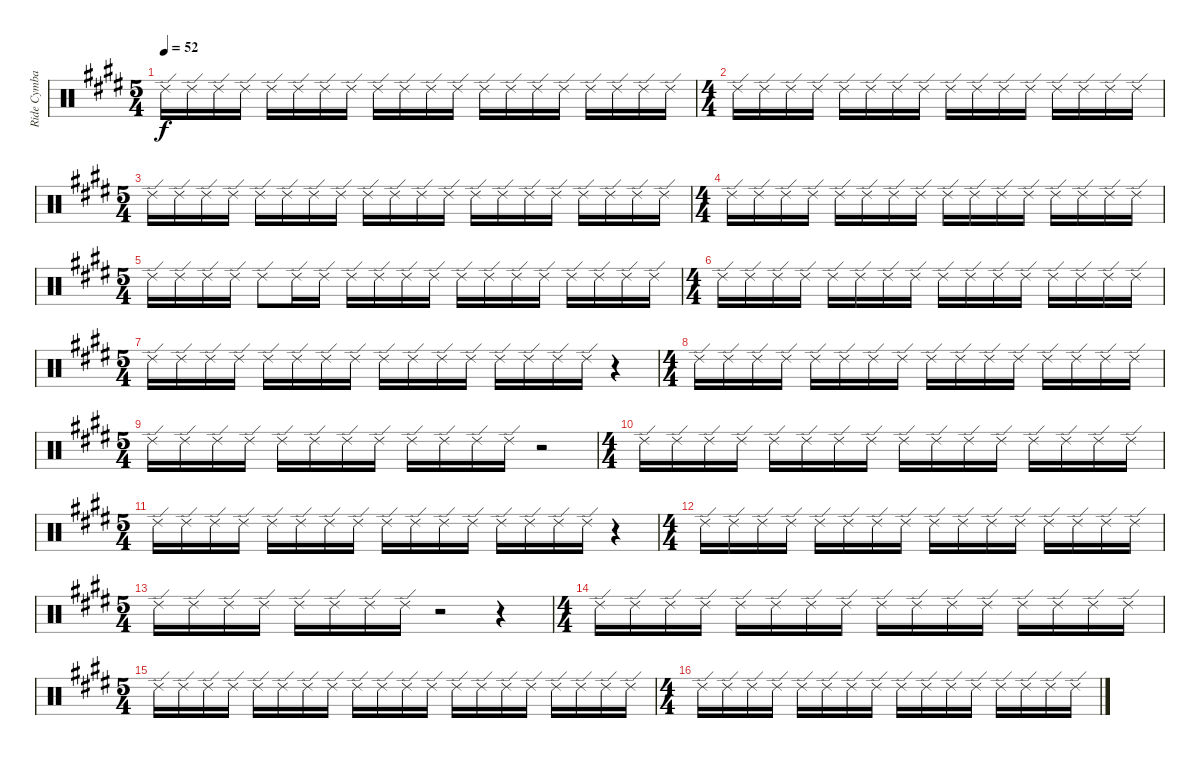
\track ("Ride Cymbal" "Ride Cymba") {instrument percussion}
\staff {score}
\articulation defaults
\ts (5 4)
\tempo 52
\clef neutral
\ks e "Ride (edge) 2".16{dy f} "Ride (edge) 2".16 "Ride (edge) 2".16 "Ride (edge) 2".16 "Ride (edge) 2".16 "Ride (edge) 2".16 "Ride (edge) 2".16 "Ride (edge) 2".16 "Ride (edge) 2".16 "Ride (edge) 2".16 "Ride (edge) 2".16 "Ride (edge) 2".16 "Ride (edge) 2".16 "Ride (edge) 2".16 "Ride (edge) 2".16 "Ride (edge) 2".16 "Ride (edge) 2".16 "Ride (edge) 2".16 "Ride (edge) 2".16 "Ride (edge) 2".16
|
\ts (4 4)
"Ride (edge) 2".16 "Ride (edge) 2".16 "Ride (edge) 2".16 "Ride (edge) 2".16 "Ride (edge) 2".16 "Ride (edge) 2".16 "Ride (edge) 2".16 "Ride (edge) 2".16 "Ride (edge) 2".16 "Ride (edge) 2".16 "Ride (edge) 2".16 "Ride (edge) 2".16 "Ride (edge) 2".16 "Ride (edge) 2".16 "Ride (edge) 2".16 "Ride (edge) 2".16 |
\ts (5 4)
"Ride (edge) 2".16 "Ride (edge) 2".16 "Ride (edge) 2".16 "Ride (edge) 2".16 "Ride (edge) 2".16 "Ride (edge) 2".16 "Ride (edge) 2".16 "Ride (edge) 2".16 "Ride (edge) 2".16 "Ride (edge) 2".16 "Ride (edge) 2".16 "Ride (edge) 2".16 "Ride (edge) 2".16 "Ride (edge) 2".16 "Ride (edge) 2".16 "Ride (edge) 2".16 "Ride (edge) 2".16 "Ride (edge) 2".16 "Ride (edge) 2".16 "Ride (edge) 2".16 |
\ts (4 4)
"Ride (edge) 2".16 "Ride (edge) 2".16 "Ride (edge) 2".16 "Ride (edge) 2".16 "Ride (edge) 2".16 "Ride (edge) 2".16 "Ride (edge) 2".16 "Ride (edge) 2".16 "Ride (edge) 2".16 "Ride (edge) 2".16 "Ride (edge) 2".16 "Ride (edge) 2".16 "Ride (edge) 2".16 "Ride (edge) 2".16 "Ride (edge) 2".16 "Ride (edge) 2".16 |
\ts (5 4)
"Ride (edge) 2".16 "Ride (edge) 2".16 "Ride (edge) 2".16 "Ride (edge) 2".16 "Ride (edge) 2".8 "Ride (edge) 2".16 "Ride (edge) 2".16 "Ride (edge) 2".16 "Ride (edge) 2".16 "Ride (edge) 2".16 "Ride (edge) 2".16 "Ride (edge) 2".16 "Ride (edge) 2".16 "Ride (edge) 2".16 "Ride (edge) 2".16 "Ride (edge) 2".16 "Ride (edge) 2".16 "Ride (edge) 2".16 "Ride (edge) 2".16 |
\ts (4 4)
"Ride (edge) 2".16 "Ride (edge) 2".16 "Ride (edge) 2".16 "Ride (edge) 2".16 "Ride (edge) 2".16 "Ride (edge) 2".16 "Ride (edge) 2".16 "Ride (edge) 2".16 "Ride (edge) 2".16 "Ride (edge) 2".16 "Ride (edge) 2".16 "Ride (edge) 2".16 "Ride (edge) 2".16 "Ride (edge) 2".16 "Ride (edge) 2".16 "Ride (edge) 2".16 |
\ts (5 4)
"Ride (edge) 2".16 "Ride (edge) 2".16 "Ride (edge) 2".16 "Ride (edge) 2".16 "Ride (edge) 2".16 "Ride (edge) 2".16 "Ride (edge) 2".16 "Ride (edge) 2".16 "Ride (edge) 2".16 "Ride (edge) 2".16 "Ride (edge) 2".16 "Ride (edge) 2".16 "Ride (edge) 2".16 "Ride (edge) 2".16 "Ride (edge) 2".16 "Ride (edge) 2".16 r.4 |
\ts (4 4)
"Ride (edge) 2".16 "Ride (edge) 2".16 "Ride (edge) 2".16 "Ride (edge) 2".16 "Ride (edge) 2".16 "Ride (edge) 2".16 "Ride (edge) 2".16 "Ride (edge) 2".16 "Ride (edge) 2".16 "Ride (edge) 2".16 "Ride (edge) 2".16 "Ride (edge) 2".16 "Ride (edge) 2".16 "Ride (edge) 2".16 "Ride (edge) 2".16 "Ride (edge) 2".16 |
\ts (5 4)
"Ride (edge) 2".16 "Ride (edge) 2".16 "Ride (edge) 2".16 "Ride (edge) 2".16 "Ride (edge) 2".16 "Ride (edge) 2".16 "Ride (edge) 2".16 "Ride (edge) 2".16 "Ride (edge) 2".16 "Ride (edge) 2".16 "Ride (edge) 2".16 "Ride (edge) 2".16 r.2 |
\ts (4 4)
"Ride (edge) 2".16 "Ride (edge) 2".16 "Ride (edge) 2".16 "Ride (edge) 2".16 "Ride (edge) 2".16 "Ride (edge) 2".16 "Ride (edge) 2".16 "Ride (edge) 2".16 "Ride (edge) 2".16 "Ride (edge) 2".16 "Ride (edge) 2".16 "Ride (edge) 2".16 "Ride (edge) 2".16 "Ride (edge) 2".16 "Ride (edge) 2".16 "Ride (edge) 2".16 |
\ts (5 4)
"Ride (edge) 2".16 "Ride (edge) 2".16 "Ride (edge) 2".16 "Ride (edge) 2".16 "Ride (edge) 2".16 "Ride (edge) 2".16 "Ride (edge) 2".16 "Ride (edge) 2".16 "Ride (edge) 2".16 "Ride (edge) 2".16 "Ride (edge) 2".16 "Ride (edge) 2".16 "Ride (edge) 2".16 "Ride (edge) 2".16 "Ride (edge) 2".16 "Ride (edge) 2".16 r.4 |
\ts (4 4)
"Ride (edge) 2".16 "Ride (edge) 2".16 "Ride (edge) 2".16 "Ride (edge) 2".16 "Ride (edge) 2".16 "Ride (edge) 2".16 "Ride (edge) 2".16 "Ride (edge) 2".16 "Ride (edge) 2".16 "Ride (edge) 2".16 "Ride (edge) 2".16 "Ride (edge) 2".16 "Ride (edge) 2".16 "Ride (edge) 2".16 "Ride (edge) 2".16 "Ride (edge) 2".16 |
\ts (5 4)
"Ride (edge) 2".16 "Ride (edge) 2".16 "Ride (edge) 2".16 "Ride (edge) 2".16 "Ride (edge) 2".16 "Ride (edge) 2".16 "Ride (edge) 2".16 "Ride (edge) 2".16 r.2 r.4 |
\ts (4 4)
"Ride (edge) 2".16 "Ride (edge) 2".16 "Ride (edge) 2".16 "Ride (edge) 2".16 "Ride (edge) 2".16 "Ride (edge) 2".16 "Ride (edge) 2".16 "Ride (edge) 2".16 "Ride (edge) 2".16 "Ride (edge) 2".16 "Ride (edge) 2".16 "Ride (edge) 2".16 "Ride (edge) 2".16 "Ride (edge) 2".16 "Ride (edge) 2".16 "Ride (edge) 2".16 |
\ts (5 4)
"Ride (edge) 2".16 "Ride (edge) 2".16 "Ride (edge) 2".16 "Ride (edge) 2".16 "Ride (edge) 2".16 "Ride (edge) 2".16 "Ride (edge) 2".16 "Ride (edge) 2".16 "Ride (edge) 2".16 "Ride (edge) 2".16 "Ride (edge) 2".16 "Ride (edge) 2".16 "Ride (edge) 2".16 "Ride (edge) 2".16 "Ride (edge) 2".16 "Ride (edge) 2".16 "Ride (edge) 2".16 "Ride (edge) 2".16 "Ride (edge) 2".16 "Ride (edge) 2".16 |
\ts (4 4)
"Ride (edge) 2".16 "Ride (edge) 2".16 "Ride (edge) 2".16 "Ride (edge) 2".16 "Ride (edge) 2".16 "Ride (edge) 2".16 "Ride (edge) 2".16 "Ride (edge) 2".16 "Ride (edge) 2".16 "Ride (edge) 2".16 "Ride (edge) 2".16 "Ride (edge) 2".16 "Ride (edge) 2".16 "Ride (edge) 2".16 "Ride (edge) 2".16 "Ride (edge) 2".16
